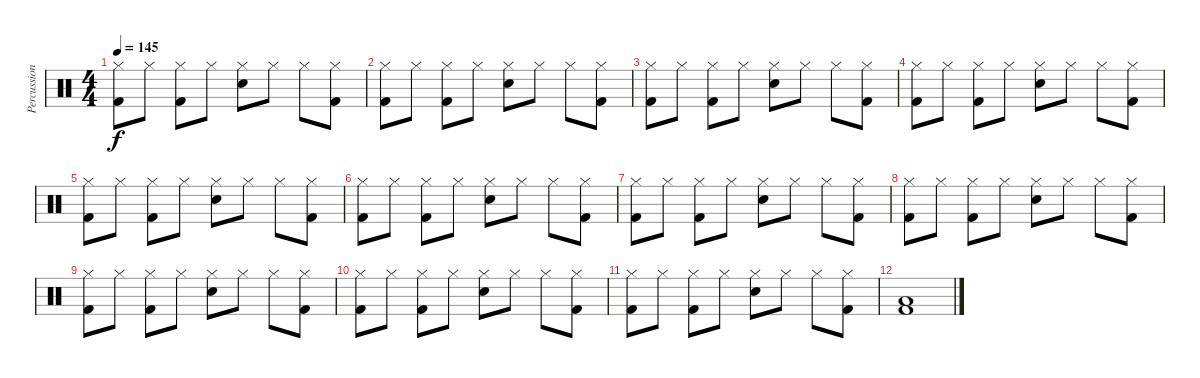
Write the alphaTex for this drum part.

\track ("Percussion" "Percussion") {instrument percussion}
\staff {score}
\articulation defaults
\ts (4 4)
\tempo 145
\clef neutral
\ks c
("Hi-Hat (closed)" "Kick (hit) 2").8{dy f} "Hi-Hat (closed)".8 ("Hi-Hat (closed)" "Kick (hit) 2").8 "Hi-Hat (closed)".8 ("Hi-Hat (closed)" "Electric Snare (hit)").8 "Hi-Hat (closed)".8 "Hi-Hat (closed)".8 ("Hi-Hat (closed)" "Kick (hit) 2").8 |
("Hi-Hat (closed)" "Kick (hit) 2").8 "Hi-Hat (closed)".8 ("Hi-Hat (closed)" "Kick (hit) 2").8 "Hi-Hat (closed)".8 ("Hi-Hat (closed)" "Electric Snare (hit)").8 "Hi-Hat (closed)".8 "Hi-Hat (closed)".8 ("Hi-Hat (closed)" "Kick (hit) 2").8 |
("Hi-Hat (closed)" "Kick (hit) 2").8 "Hi-Hat (closed)".8 ("Hi-Hat (closed)" "Kick (hit) 2").8 "Hi-Hat (closed)".8 ("Hi-Hat (closed)" "Electric Snare (hit)").8 "Hi-Hat (closed)".8 "Hi-Hat (closed)".8 ("Hi-Hat (closed)" "Kick (hit) 2").8 |
("Hi-Hat (closed)" "Kick (hit) 2").8 "Hi-Hat (closed)".8 ("Hi-Hat (closed)" "Kick (hit) 2").8 "Hi-Hat (closed)".8 ("Hi-Hat (closed)" "Electric Snare (hit)").8 "Hi-Hat (closed)".8 "Hi-Hat (closed)".8 ("Hi-Hat (closed)" "Kick (hit) 2").8 |
("Hi-Hat (closed)" "Kick (hit) 2").8 "Hi-Hat (closed)".8 ("Hi-Hat (closed)" "Kick (hit) 2").8 "Hi-Hat (closed)".8 ("Hi-Hat (closed)" "Electric Snare (hit)").8 "Hi-Hat (closed)".8 "Hi-Hat (closed)".8 ("Hi-Hat (closed)" "Kick (hit) 2").8 |
("Hi-Hat (closed)" "Kick (hit) 2").8 "Hi-Hat (closed)".8 ("Hi-Hat (closed)" "Kick (hit) 2").8 "Hi-Hat (closed)".8 ("Hi-Hat (closed)" "Electric Snare (hit)").8 "Hi-Hat (closed)".8 "Hi-Hat (closed)".8 ("Hi-Hat (closed)" "Kick (hit) 2").8 |
("Hi-Hat (closed)" "Kick (hit) 2").8 "Hi-Hat (closed)".8 ("Hi-Hat (closed)" "Kick (hit) 2").8 "Hi-Hat (closed)".8 ("Hi-Hat (closed)" "Electric Snare (hit)").8 "Hi-Hat (closed)".8 "Hi-Hat (closed)".8 ("Hi-Hat (closed)" "Kick (hit) 2").8 |
("Hi-Hat (closed)" "Kick (hit) 2").8 "Hi-Hat (closed)".8 ("Hi-Hat (closed)" "Kick (hit) 2").8 "Hi-Hat (closed)".8 ("Hi-Hat (closed)" "Electric Snare (hit)").8 "Hi-Hat (closed)".8 "Hi-Hat (closed)".8 ("Hi-Hat (closed)" "Kick (hit) 2").8 |
("Hi-Hat (closed)" "Kick (hit) 2").8 "Hi-Hat (closed)".8 ("Hi-Hat (closed)" "Kick (hit) 2").8 "Hi-Hat (closed)".8 ("Hi-Hat (closed)" "Electric Snare (hit)").8 "Hi-Hat (closed)".8 "Hi-Hat (closed)".8 ("Hi-Hat (closed)" "Kick (hit) 2").8 |
("Hi-Hat (closed)" "Kick (hit) 2").8 "Hi-Hat (closed)".8 ("Hi-Hat (closed)" "Kick (hit) 2").8 "Hi-Hat (closed)".8 ("Hi-Hat (closed)" "Electric Snare (hit)").8 "Hi-Hat (closed)".8 "Hi-Hat (closed)".8 ("Hi-Hat (closed)" "Kick (hit) 2").8 |
("Hi-Hat (closed)" "Kick (hit) 2").8 "Hi-Hat (closed)".8 ("Hi-Hat (closed)" "Kick (hit) 2").8 "Hi-Hat (closed)".8 ("Hi-Hat (closed)" "Electric Snare (hit)").8 "Hi-Hat (closed)".8 "Hi-Hat (closed)".8 ("Hi-Hat (closed)" "Kick (hit) 2").8 |
("Low Floor Tom (hit)" "Kick (hit) 2").1
